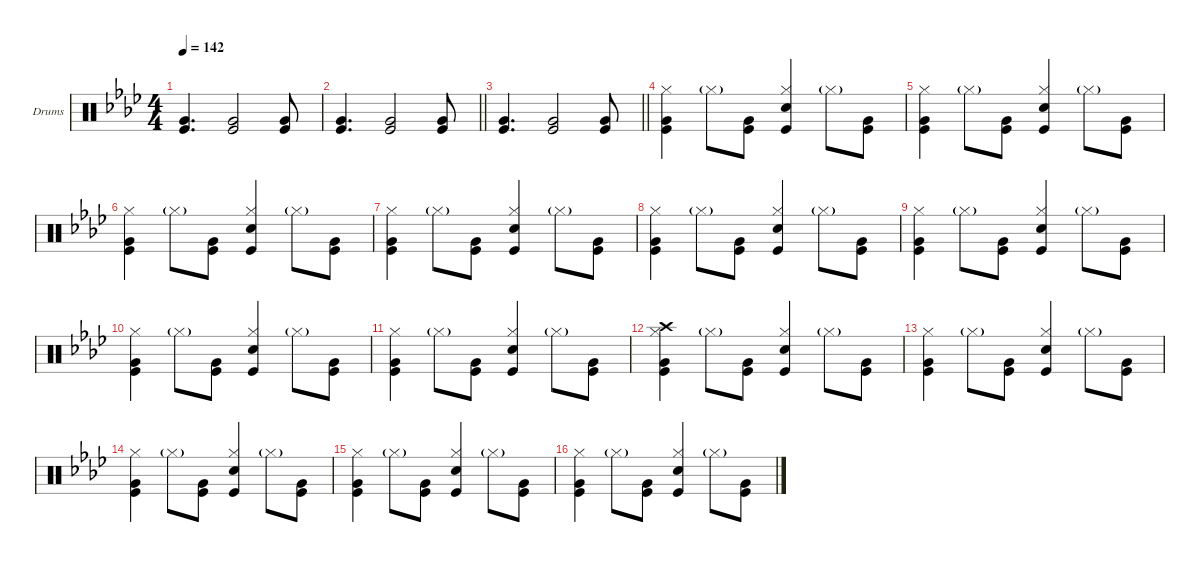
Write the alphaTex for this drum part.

\defaultSystemsLayout 4
\hideDynamics
\bracketExtendMode groupsimilarinstruments
\firstSystemTrackNameOrientation horizontal
\otherSystemsTrackNameOrientation horizontal
\track ("Drumkit" "Drums") {multiBarRest instrument percussion}
\staff {score}
\articulation defaults
\ts (4 4)
\tempo 142
\clef neutral
\ks ab
("Very Low Tom (hit)" "Kick (hit)").4{d dy fff} ("Kick (hit)" "Very Low Tom (hit)").2 ("Very Low Tom (hit)" "Kick (hit)").8 |
\barLineRight lightlight
("Very Low Tom (hit)" "Kick (hit)").4{d} ("Kick (hit)" "Very Low Tom (hit)").2 ("Very Low Tom (hit)" "Kick (hit)").8 |
\barLineRight lightlight
("Very Low Tom (hit)" "Kick (hit)").4{d} ("Kick (hit)" "Very Low Tom (hit)").2 ("Very Low Tom (hit)" "Kick (hit)").8 |
("Very Low Tom (hit)" "Kick (hit)" "Hi-Hat (closed)").4 "Hi-Hat (closed)"{g}.8 ("Very Low Tom (hit)" "Kick (hit)").8 ("Snare (hit) 2" "Kick (hit)" "Hi-Hat (closed)").4 "Hi-Hat (closed)"{g}.8 ("Very Low Tom (hit)" "Kick (hit)").8 |
("Very Low Tom (hit)" "Kick (hit)" "Hi-Hat (closed)").4 "Hi-Hat (closed)"{g}.8 ("Very Low Tom (hit)" "Kick (hit)").8 ("Snare (hit) 2" "Kick (hit)" "Hi-Hat (closed)").4 "Hi-Hat (closed)"{g}.8 ("Very Low Tom (hit)" "Kick (hit)").8 |
("Very Low Tom (hit)" "Kick (hit)" "Hi-Hat (closed)").4 "Hi-Hat (closed)"{g}.8 ("Very Low Tom (hit)" "Kick (hit)").8 ("Snare (hit) 2" "Kick (hit)" "Hi-Hat (closed)").4 "Hi-Hat (closed)"{g}.8 ("Very Low Tom (hit)" "Kick (hit)").8 |
("Very Low Tom (hit)" "Kick (hit)" "Hi-Hat (closed)").4 "Hi-Hat (closed)"{g}.8 ("Very Low Tom (hit)" "Kick (hit)").8 ("Snare (hit) 2" "Kick (hit)" "Hi-Hat (closed)").4 "Hi-Hat (closed)"{g}.8 ("Very Low Tom (hit)" "Kick (hit)").8 |
("Very Low Tom (hit)" "Kick (hit)" "Hi-Hat (closed)").4 "Hi-Hat (closed)"{g}.8 ("Very Low Tom (hit)" "Kick (hit)").8 ("Snare (hit) 2" "Kick (hit)" "Hi-Hat (closed)").4 "Hi-Hat (closed)"{g}.8 ("Very Low Tom (hit)" "Kick (hit)").8 |
("Very Low Tom (hit)" "Kick (hit)" "Hi-Hat (closed)").4 "Hi-Hat (closed)"{g}.8 ("Very Low Tom (hit)" "Kick (hit)").8 ("Snare (hit) 2" "Kick (hit)" "Hi-Hat (closed)").4 "Hi-Hat (closed)"{g}.8 ("Very Low Tom (hit)" "Kick (hit)").8 |
("Very Low Tom (hit)" "Kick (hit)" "Hi-Hat (closed)").4 "Hi-Hat (closed)"{g}.8 ("Very Low Tom (hit)" "Kick (hit)").8 ("Snare (hit) 2" "Kick (hit)" "Hi-Hat (closed)").4 "Hi-Hat (closed)"{g}.8 ("Very Low Tom (hit)" "Kick (hit)").8 |
("Very Low Tom (hit)" "Kick (hit)" "Hi-Hat (closed)").4 "Hi-Hat (closed)"{g}.8 ("Very Low Tom (hit)" "Kick (hit)").8 ("Snare (hit) 2" "Kick (hit)" "Hi-Hat (closed)").4 "Hi-Hat (closed)"{g}.8 ("Very Low Tom (hit)" "Kick (hit)").8 |
("Very Low Tom (hit)" "Kick (hit)" "Hi-Hat (closed)" "Crash high (hit)").4 "Hi-Hat (closed)"{g}.8 ("Very Low Tom (hit)" "Kick (hit)").8 ("Snare (hit) 2" "Kick (hit)" "Hi-Hat (closed)").4 "Hi-Hat (closed)"{g}.8 ("Very Low Tom (hit)" "Kick (hit)").8 |
("Very Low Tom (hit)" "Kick (hit)" "Hi-Hat (closed)").4 "Hi-Hat (closed)"{g}.8 ("Very Low Tom (hit)" "Kick (hit)").8 ("Snare (hit) 2" "Kick (hit)" "Hi-Hat (closed)").4 "Hi-Hat (closed)"{g}.8 ("Very Low Tom (hit)" "Kick (hit)").8 |
("Very Low Tom (hit)" "Kick (hit)" "Hi-Hat (closed)").4 "Hi-Hat (closed)"{g}.8 ("Very Low Tom (hit)" "Kick (hit)").8 ("Snare (hit) 2" "Kick (hit)" "Hi-Hat (closed)").4 "Hi-Hat (closed)"{g}.8 ("Very Low Tom (hit)" "Kick (hit)").8 |
("Very Low Tom (hit)" "Kick (hit)" "Hi-Hat (closed)").4 "Hi-Hat (closed)"{g}.8 ("Very Low Tom (hit)" "Kick (hit)").8 ("Snare (hit) 2" "Kick (hit)" "Hi-Hat (closed)").4 "Hi-Hat (closed)"{g}.8 ("Very Low Tom (hit)" "Kick (hit)").8 |
("Very Low Tom (hit)" "Kick (hit)" "Hi-Hat (closed)").4 "Hi-Hat (closed)"{g}.8 ("Very Low Tom (hit)" "Kick (hit)").8 ("Snare (hit) 2" "Kick (hit)" "Hi-Hat (closed)").4 "Hi-Hat (closed)"{g}.8 ("Very Low Tom (hit)" "Kick (hit)").8
